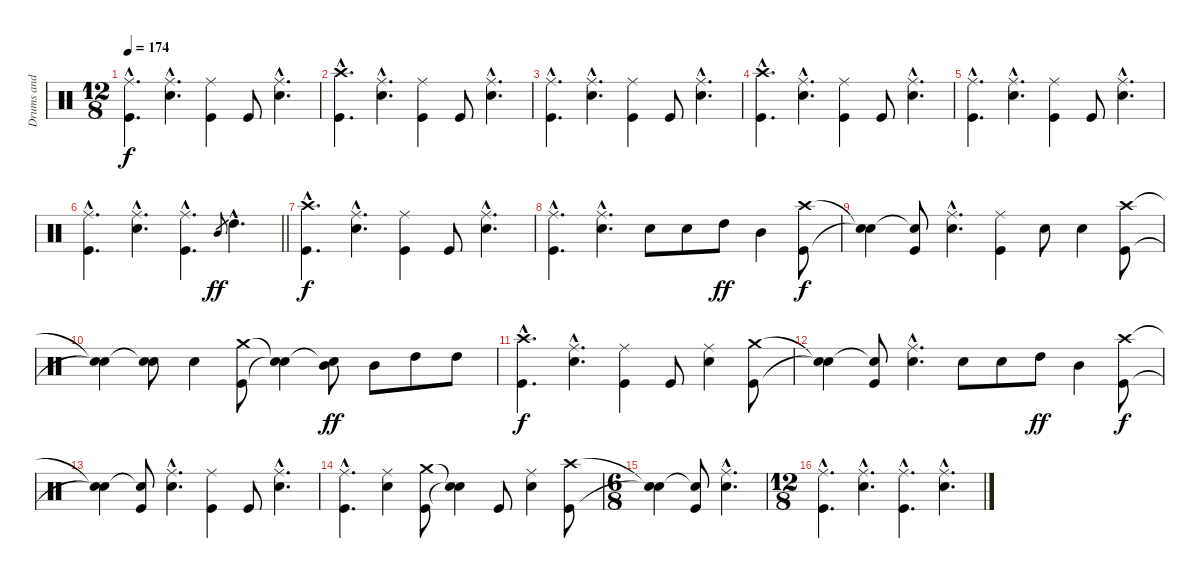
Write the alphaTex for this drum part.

\track ("Drums and percussion" "Drums and ") {instrument percussion}
\staff {score}
\articulation defaults
\ts (12 8)
\tempo 174
\clef neutral
\ks c
("Ride (middle)"{hac} "Kick (hit)"{hac}).4{d dy f} ("Ride (middle)"{hac} "Snare (hit) 2"{hac}).4{d} ("Ride (middle)" "Kick (hit)").4 "Kick (hit)".8 ("Ride (middle)"{hac} "Snare (hit) 2"{hac}).4{d} |
("Crash high (hit)"{hac} "Kick (hit)"{hac}).4{d} ("Ride (middle)"{hac} "Snare (hit) 2"{hac}).4{d} ("Ride (middle)" "Kick (hit)").4 "Kick (hit)".8 ("Ride (middle)"{hac} "Snare (hit) 2"{hac}).4{d} |
("Ride (middle)"{hac} "Kick (hit)"{hac}).4{d} ("Ride (middle)"{hac} "Snare (hit) 2"{hac}).4{d} ("Ride (middle)" "Kick (hit)").4 "Kick (hit)".8 ("Ride (middle)"{hac} "Snare (hit) 2"{hac}).4{d} |
("Crash high (hit)"{hac} "Kick (hit)"{hac}).4{d} ("Ride (middle)"{hac} "Snare (hit) 2"{hac}).4{d} ("Ride (middle)" "Kick (hit)").4 "Kick (hit)".8 ("Ride (middle)"{hac} "Snare (hit) 2"{hac}).4{d} |
("Ride (middle)"{hac} "Kick (hit)"{hac}).4{d} ("Ride (middle)"{hac} "Snare (hit) 2"{hac}).4{d} ("Ride (middle)" "Kick (hit)").4 "Kick (hit)".8 ("Ride (middle)"{hac} "Snare (hit) 2"{hac}).4{d} |
\barLineRight lightlight
("Ride (middle)"{hac} "Kick (hit)"{hac}).4{d} ("Ride (middle)"{hac} "Snare (hit) 2"{hac}).4{d} ("Ride (middle)"{hac} "Kick (hit)"{hac}).4{d} "Mid Tom (hit)".8{gr dy ff} "High Tom (hit)"{hac}.4{d} |
("Crash high (hit)"{hac} "Kick (hit)"{hac}).4{d dy f} ("Ride (middle)"{hac} "Snare (hit) 2"{hac}).4{d} ("Ride (middle)" "Kick (hit)").4 "Kick (hit)".8 ("Ride (middle)"{hac} "Snare (hit) 2"{hac}).4{d} |
("Ride (middle)"{hac} "Kick (hit)"{hac}).4{d} ("Ride (middle)"{hac} "Snare (hit) 2"{hac}).4{d} "Snare (hit) 2".8 "Snare (hit) 2".8 "High Tom (hit)".8{dy ff} "Mid Tom (hit)".4 ("Crash high (hit)" "Kick (hit)").8{dy f} |
("Snare (hit)"{t} "Snare (hit)"{t}).4 ("Snare (hit)"{t} "Kick (hit)").8 ("Ride (middle)"{hac} "Snare (hit) 2"{hac}).4{d} ("Ride (middle)" "Kick (hit)").4 "Snare (hit) 2".8 "Snare (hit) 2".4 ("Crash high (hit)" "Kick (hit)").8 |
("Snare (hit)"{t} "Snare (hit)"{t}).4 ("Snare (hit)"{t} "Snare (hit) 2").8 "Snare (hit) 2".4 ("Crash medium (hit)" "Kick (hit)").8 ("Snare (hit)"{t} "Snare (hit)"{t}).4 ("Snare (hit)"{t} "Mid Tom (hit)").8{dy ff} "Mid Tom (hit)".8 "High Tom (hit)".8 "High Tom (hit)".8 |
("Crash high (hit)"{hac} "Kick (hit)"{hac}).4{d dy f} ("Ride (middle)"{hac} "Snare (hit) 2"{hac}).4{d} ("Ride (middle)" "Kick (hit)").4 "Kick (hit)".8 ("Ride (middle)" "Snare (hit) 2").4 ("Crash medium (hit)" "Kick (hit)").8 |
("Snare (hit)"{t} "Snare (hit)"{t}).4 ("Snare (hit)"{t} "Kick (hit)").8 ("Ride (middle)"{hac} "Snare (hit) 2"{hac}).4{d} "Snare (hit) 2".8 "Snare (hit) 2".8 "High Tom (hit)".8{dy ff} "Mid Tom (hit)".4 ("Crash high (hit)" "Kick (hit)").8{dy f} |
("Snare (hit)"{t} "Snare (hit)"{t}).4 ("Snare (hit)"{t} "Kick (hit)").8 ("Ride (middle)"{hac} "Snare (hit) 2"{hac}).4{d} ("Ride (middle)" "Kick (hit)").4 "Kick (hit)".8 ("Ride (middle)"{hac} "Snare (hit) 2"{hac}).4{d} |
("Ride (middle)"{hac} "Kick (hit)"{hac}).4{d} ("Ride (middle)" "Snare (hit) 2").4 ("Crash medium (hit)" "Kick (hit)").8 ("Snare (hit)"{t} "Snare (hit)"{t}).4 "Kick (hit)".8 ("Ride (middle)" "Snare (hit) 2").4 ("Crash high (hit)" "Kick (hit)").8 |
\ts (6 8)
("Snare (hit)"{t} "Snare (hit)"{t}).4 ("Snare (hit)"{t} "Kick (hit)").8 ("Ride (middle)"{hac} "Snare (hit) 2"{hac}).4{d} |
\ts (12 8)
("Ride (middle)"{hac} "Kick (hit)"{hac}).4{d} ("Ride (middle)"{hac} "Snare (hit) 2"{hac}).4{d} ("Ride (middle)"{hac} "Kick (hit)"{hac}).4{d} ("Ride (middle)"{hac} "Snare (hit) 2"{hac}).4{d}
